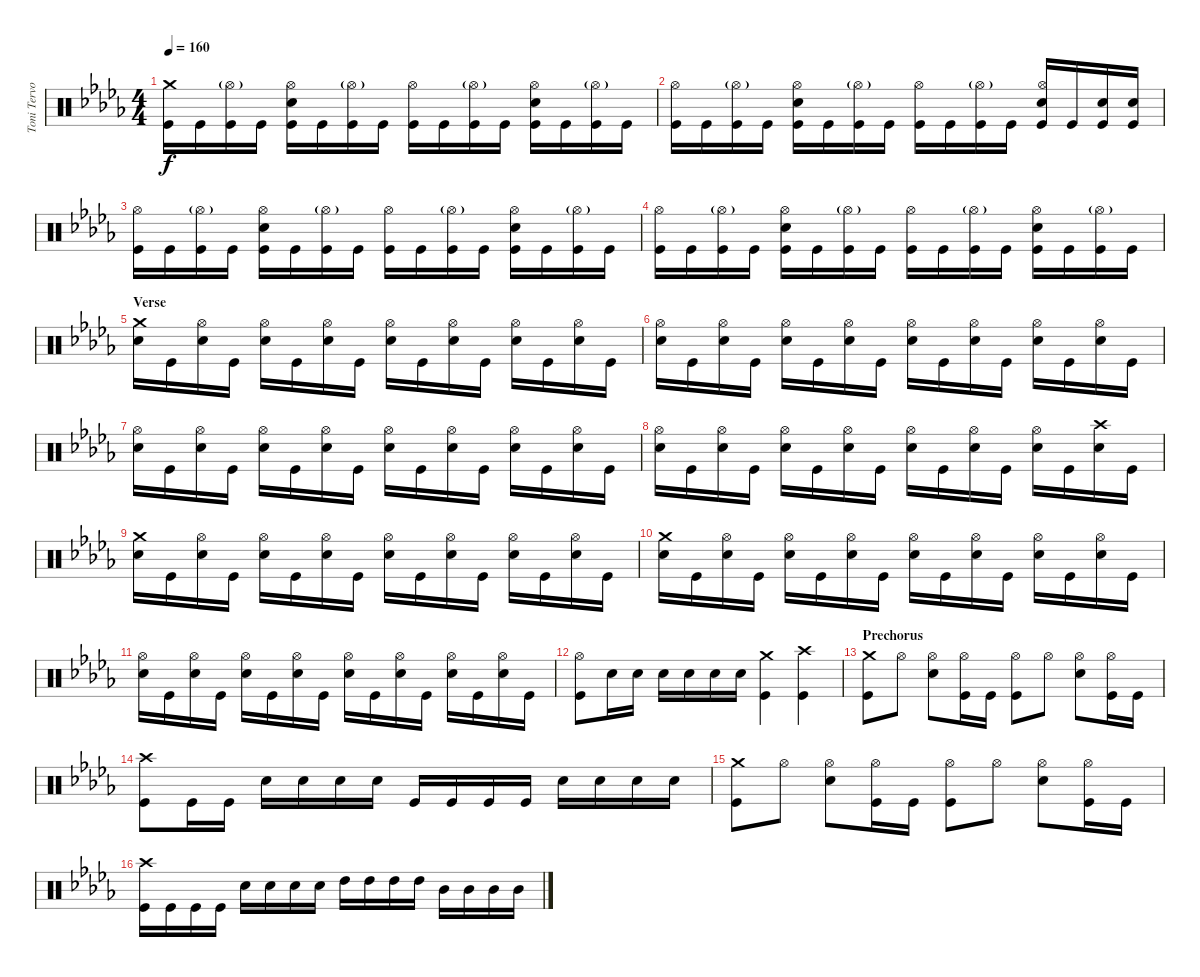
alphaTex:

\track ("Toni Tervo (drums)" "Toni Tervo") {instrument percussion}
\staff {score}
\articulation defaults
\ts (4 4)
\tempo 160
\clef neutral
\ks bbminor
("Kick (hit)" "Crash medium (hit)").16{dy f} "Kick (hit)".16 ("Kick (hit)" "Hi-Hat (open)"{g}).16 "Kick (hit)".16 ("Kick (hit)" "Snare (hit) 2" "Hi-Hat (open)").16 "Kick (hit)".16 ("Kick (hit)" "Hi-Hat (open)"{g}).16 "Kick (hit)".16 ("Kick (hit)" "Hi-Hat (open)").16 "Kick (hit)".16 ("Kick (hit)" "Hi-Hat (open)"{g}).16 "Kick (hit)".16 ("Kick (hit)" "Snare (hit) 2" "Hi-Hat (open)").16 "Kick (hit)".16 ("Kick (hit)" "Hi-Hat (open)"{g}).16 "Kick (hit)".16 |
("Kick (hit)" "Hi-Hat (open)").16 "Kick (hit)".16 ("Kick (hit)" "Hi-Hat (open)"{g}).16 "Kick (hit)".16 ("Kick (hit)" "Snare (hit) 2" "Hi-Hat (open)").16 "Kick (hit)".16 ("Kick (hit)" "Hi-Hat (open)"{g}).16 "Kick (hit)".16 ("Kick (hit)" "Hi-Hat (open)").16 "Kick (hit)".16 ("Kick (hit)" "Hi-Hat (open)"{g}).16 "Kick (hit)".16 ("Kick (hit)" "Snare (hit) 2" "Hi-Hat (open)").16 "Kick (hit)".16 ("Kick (hit)" "Snare (hit) 2").16 ("Kick (hit)" "Snare (hit) 2").16 |
("Kick (hit)" "Hi-Hat (open)").16 "Kick (hit)".16 ("Kick (hit)" "Hi-Hat (open)"{g}).16 "Kick (hit)".16 ("Kick (hit)" "Snare (hit) 2" "Hi-Hat (open)").16 "Kick (hit)".16 ("Kick (hit)" "Hi-Hat (open)"{g}).16 "Kick (hit)".16 ("Kick (hit)" "Hi-Hat (open)").16 "Kick (hit)".16 ("Kick (hit)" "Hi-Hat (open)"{g}).16 "Kick (hit)".16 ("Kick (hit)" "Snare (hit) 2" "Hi-Hat (open)").16 "Kick (hit)".16 ("Kick (hit)" "Hi-Hat (open)"{g}).16 "Kick (hit)".16 |
("Kick (hit)" "Hi-Hat (open)").16 "Kick (hit)".16 ("Kick (hit)" "Hi-Hat (open)"{g}).16 "Kick (hit)".16 ("Kick (hit)" "Snare (hit) 2" "Hi-Hat (open)").16 "Kick (hit)".16 ("Kick (hit)" "Hi-Hat (open)"{g}).16 "Kick (hit)".16 ("Kick (hit)" "Hi-Hat (open)").16 "Kick (hit)".16 ("Kick (hit)" "Hi-Hat (open)"{g}).16 "Kick (hit)".16 ("Kick (hit)" "Snare (hit) 2" "Hi-Hat (open)").16 "Kick (hit)".16 ("Kick (hit)" "Hi-Hat (open)"{g}).16 "Kick (hit)".16 |
\section ("" "Verse")
("Snare (hit) 2" "Crash medium (hit)").16 "Kick (hit)".16 ("Snare (hit) 2" "Hi-Hat (open)").16 "Kick (hit)".16 ("Snare (hit) 2" "Hi-Hat (open)").16 "Kick (hit)".16 ("Snare (hit) 2" "Hi-Hat (open)").16 "Kick (hit)".16 ("Snare (hit) 2" "Hi-Hat (open)").16 "Kick (hit)".16 ("Snare (hit) 2" "Hi-Hat (open)").16 "Kick (hit)".16 ("Snare (hit) 2" "Hi-Hat (open)").16 "Kick (hit)".16 ("Snare (hit) 2" "Hi-Hat (open)").16 "Kick (hit)".16 |
("Snare (hit) 2" "Hi-Hat (open)").16 "Kick (hit)".16 ("Snare (hit) 2" "Hi-Hat (open)").16 "Kick (hit)".16 ("Snare (hit) 2" "Hi-Hat (open)").16 "Kick (hit)".16 ("Snare (hit) 2" "Hi-Hat (open)").16 "Kick (hit)".16 ("Snare (hit) 2" "Hi-Hat (open)").16 "Kick (hit)".16 ("Snare (hit) 2" "Hi-Hat (open)").16 "Kick (hit)".16 ("Snare (hit) 2" "Hi-Hat (open)").16 "Kick (hit)".16 ("Snare (hit) 2" "Hi-Hat (open)").16 "Kick (hit)".16 |
("Snare (hit) 2" "Hi-Hat (open)").16 "Kick (hit)".16 ("Snare (hit) 2" "Hi-Hat (open)").16 "Kick (hit)".16 ("Snare (hit) 2" "Hi-Hat (open)").16 "Kick (hit)".16 ("Snare (hit) 2" "Hi-Hat (open)").16 "Kick (hit)".16 ("Snare (hit) 2" "Hi-Hat (open)").16 "Kick (hit)".16 ("Snare (hit) 2" "Hi-Hat (open)").16 "Kick (hit)".16 ("Snare (hit) 2" "Hi-Hat (open)").16 "Kick (hit)".16 ("Snare (hit) 2" "Hi-Hat (open)").16 "Kick (hit)".16 |
("Snare (hit) 2" "Hi-Hat (open)").16 "Kick (hit)".16 ("Snare (hit) 2" "Hi-Hat (open)").16 "Kick (hit)".16 ("Snare (hit) 2" "Hi-Hat (open)").16 "Kick (hit)".16 ("Snare (hit) 2" "Hi-Hat (open)").16 "Kick (hit)".16 ("Snare (hit) 2" "Hi-Hat (open)").16 "Kick (hit)".16 ("Snare (hit) 2" "Hi-Hat (open)").16 "Kick (hit)".16 ("Snare (hit) 2" "Hi-Hat (open)").16 "Kick (hit)".16 ("Snare (hit) 2" "Crash high (hit)").16 "Kick (hit)".16 |
("Snare (hit) 2" "Crash medium (hit)").16 "Kick (hit)".16 ("Snare (hit) 2" "Hi-Hat (open)").16 "Kick (hit)".16 ("Snare (hit) 2" "Hi-Hat (open)").16 "Kick (hit)".16 ("Snare (hit) 2" "Hi-Hat (open)").16 "Kick (hit)".16 ("Snare (hit) 2" "Hi-Hat (open)").16 "Kick (hit)".16 ("Snare (hit) 2" "Hi-Hat (open)").16 "Kick (hit)".16 ("Snare (hit) 2" "Hi-Hat (open)").16 "Kick (hit)".16 ("Snare (hit) 2" "Hi-Hat (open)").16 "Kick (hit)".16 |
("Snare (hit) 2" "Crash medium (hit)").16 "Kick (hit)".16 ("Snare (hit) 2" "Hi-Hat (open)").16 "Kick (hit)".16 ("Snare (hit) 2" "Hi-Hat (open)").16 "Kick (hit)".16 ("Snare (hit) 2" "Hi-Hat (open)").16 "Kick (hit)".16 ("Snare (hit) 2" "Hi-Hat (open)").16 "Kick (hit)".16 ("Snare (hit) 2" "Hi-Hat (open)").16 "Kick (hit)".16 ("Snare (hit) 2" "Hi-Hat (open)").16 "Kick (hit)".16 ("Snare (hit) 2" "Hi-Hat (open)").16 "Kick (hit)".16 |
("Snare (hit) 2" "Hi-Hat (open)").16 "Kick (hit)".16 ("Snare (hit) 2" "Hi-Hat (open)").16 "Kick (hit)".16 ("Snare (hit) 2" "Hi-Hat (open)").16 "Kick (hit)".16 ("Snare (hit) 2" "Hi-Hat (open)").16 "Kick (hit)".16 ("Snare (hit) 2" "Hi-Hat (open)").16 "Kick (hit)".16 ("Snare (hit) 2" "Hi-Hat (open)").16 "Kick (hit)".16 ("Snare (hit) 2" "Hi-Hat (open)").16 "Kick (hit)".16 ("Snare (hit) 2" "Hi-Hat (open)").16 "Kick (hit)".16 |
("Kick (hit)" "Hi-Hat (open)").8 "Snare (hit) 2".16 "Snare (hit) 2".16 "Snare (hit) 2".16 "Snare (hit) 2".16 "Snare (hit) 2".16 "Snare (hit) 2".16 ("Kick (hit)" "Crash medium (hit)").4 ("Kick (hit)" "Crash high (hit)").4 |
\section ("" "Prechorus")
("Kick (hit)" "Crash medium (hit)").8 "Hi-Hat (open)".8 ("Hi-Hat (open)" "Snare (hit) 2").8 ("Hi-Hat (open)" "Kick (hit)").16 "Kick (hit)".16 ("Kick (hit)" "Hi-Hat (open)").8 "Hi-Hat (open)".8 ("Hi-Hat (open)" "Snare (hit) 2").8 ("Hi-Hat (open)" "Kick (hit)").16 "Kick (hit)".16 |
("Kick (hit)" "Crash high (hit)").8 "Kick (hit)".16 "Kick (hit)".16 "Snare (hit) 2".16 "Snare (hit) 2".16 "Snare (hit) 2".16 "Snare (hit) 2".16 "Kick (hit)".16 "Kick (hit)".16 "Kick (hit)".16 "Kick (hit)".16 "Snare (hit) 2".16 "Snare (hit) 2".16 "Snare (hit) 2".16 "Snare (hit) 2".16 |
("Kick (hit)" "Crash medium (hit)").8 "Hi-Hat (open)".8 ("Hi-Hat (open)" "Snare (hit) 2").8 ("Hi-Hat (open)" "Kick (hit)").16 "Kick (hit)".16 ("Kick (hit)" "Hi-Hat (open)").8 "Hi-Hat (open)".8 ("Hi-Hat (open)" "Snare (hit) 2").8 ("Hi-Hat (open)" "Kick (hit)").16 "Kick (hit)".16 |
("Kick (hit)" "Crash high (hit)").16 "Kick (hit)".16 "Kick (hit)".16 "Kick (hit)".16 "Snare (hit) 2".16 "Snare (hit) 2".16 "Snare (hit) 2".16 "Snare (hit) 2".16 "High Tom (hit)".16 "High Tom (hit)".16 "High Tom (hit)".16 "High Tom (hit)".16 "Mid Tom (hit)".16 "Mid Tom (hit)".16 "Mid Tom (hit)".16 "Mid Tom (hit)".16
